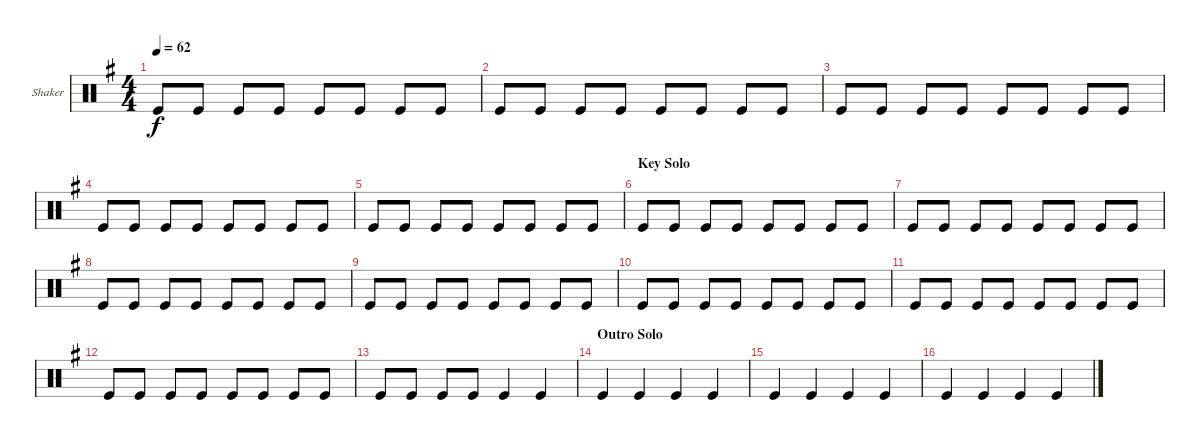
\defaultSystemsLayout 4
\bracketExtendMode groupsimilarinstruments
\firstSystemTrackNameOrientation horizontal
\otherSystemsTrackNameOrientation horizontal
\track ("Shaker" "Shaker") {mute instrument percussion}
\staff {score}
\articulation defaults
\ts (4 4)
\tempo 62
\clef neutral
\scale
0.333333
\ks g "Kick (hit)".8{dy f} "Kick (hit)".8 "Kick (hit)".8 "Kick (hit)".8 "Kick (hit)".8 "Kick (hit)".8 "Kick (hit)".8 "Kick (hit)".8
|
\scale
0.333333 "Kick (hit)".8 "Kick (hit)".8 "Kick (hit)".8 "Kick (hit)".8 "Kick (hit)".8 "Kick (hit)".8 "Kick (hit)".8 "Kick (hit)".8 |
\scale
0.333333 "Kick (hit)".8 "Kick (hit)".8 "Kick (hit)".8 "Kick (hit)".8 "Kick (hit)".8 "Kick (hit)".8 "Kick (hit)".8 "Kick (hit)".8 |
\scale
0.333333 "Kick (hit)".8 "Kick (hit)".8 "Kick (hit)".8 "Kick (hit)".8 "Kick (hit)".8 "Kick (hit)".8 "Kick (hit)".8 "Kick (hit)".8 |
\scale
0.333333 "Kick (hit)".8 "Kick (hit)".8 "Kick (hit)".8 "Kick (hit)".8 "Kick (hit)".8 "Kick (hit)".8 "Kick (hit)".8 "Kick (hit)".8 |
\section ("" "Key Solo")
\scale
0.333333 "Kick (hit)".8 "Kick (hit)".8 "Kick (hit)".8 "Kick (hit)".8 "Kick (hit)".8 "Kick (hit)".8 "Kick (hit)".8 "Kick (hit)".8 |
\scale
0.333333 "Kick (hit)".8 "Kick (hit)".8 "Kick (hit)".8 "Kick (hit)".8 "Kick (hit)".8 "Kick (hit)".8 "Kick (hit)".8 "Kick (hit)".8 |
\scale
0.333333 "Kick (hit)".8 "Kick (hit)".8 "Kick (hit)".8 "Kick (hit)".8 "Kick (hit)".8 "Kick (hit)".8 "Kick (hit)".8 "Kick (hit)".8 |
"Kick (hit)".8 "Kick (hit)".8 "Kick (hit)".8 "Kick (hit)".8 "Kick (hit)".8 "Kick (hit)".8 "Kick (hit)".8 "Kick (hit)".8 |
\scale
0.333333 "Kick (hit)".8 "Kick (hit)".8 "Kick (hit)".8 "Kick (hit)".8 "Kick (hit)".8 "Kick (hit)".8 "Kick (hit)".8 "Kick (hit)".8 |
\scale
0.333333 "Kick (hit)".8 "Kick (hit)".8 "Kick (hit)".8 "Kick (hit)".8 "Kick (hit)".8 "Kick (hit)".8 "Kick (hit)".8 "Kick (hit)".8 |
\scale
0.333333 "Kick (hit)".8 "Kick (hit)".8 "Kick (hit)".8 "Kick (hit)".8 "Kick (hit)".8 "Kick (hit)".8 "Kick (hit)".8 "Kick (hit)".8 |
\scale
0.333333 "Kick (hit)".8 "Kick (hit)".8 "Kick (hit)".8 "Kick (hit)".8 "Kick (hit)".4 "Kick (hit)".4 |
\section ("" "Outro Solo")
\scale
0.333333 "Kick (hit)".4 "Kick (hit)".4 "Kick (hit)".4 "Kick (hit)".4 |
"Kick (hit)".4 "Kick (hit)".4 "Kick (hit)".4 "Kick (hit)".4 |
\scale
0.333333 "Kick (hit)".4 "Kick (hit)".4 "Kick (hit)".4 "Kick (hit)".4
